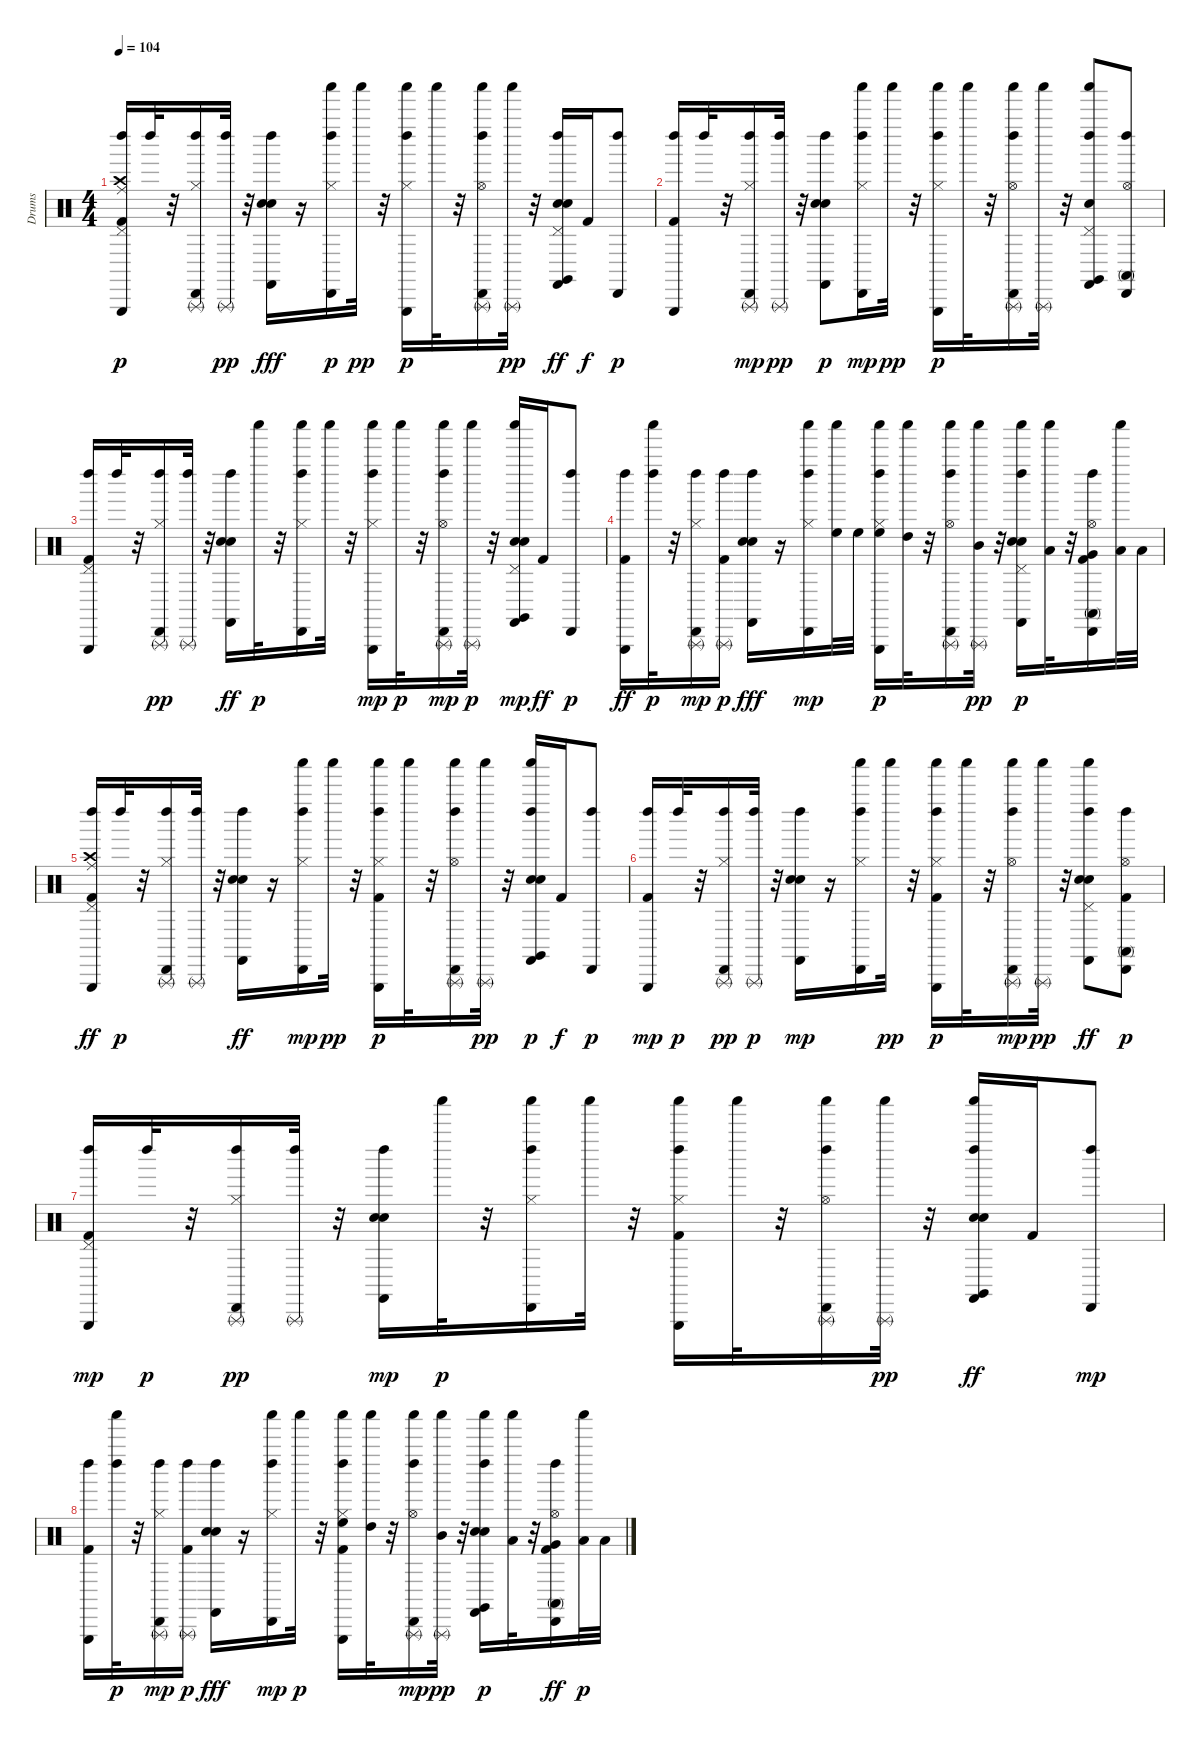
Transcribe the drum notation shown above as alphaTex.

\track ("Drums" "Drums") {instrument percussion}
\staff {score}
\articulation defaults
\ts (4 4)
\tempo 104
\clef neutral
\ks c
("Left Maraca (hit)" "Crash high (hit)" "Triangle (hit)" "Ride (middle)" "Kick (hit) 2" "Pedal Hi-Hat (hit)").16{dy p} "Left Maraca (hit)".32 r.32 ("Cabasa (hit)" "Left Maraca (hit)" "Triangle (rnute)" "Hi-Hat (closed)").16 ("Left Maraca (hit)" "Triangle (rnute)").32{dy pp} r.32 ("Left Maraca (hit)" "Electric Snare (hit)" "Castanets (hit)" "Hand Clap (hit)").16{dy fff} r.16 ("Cabasa (hit)" "Left Maraca (hit)" "Shaker (hit)" "Hi-Hat (closed)").16{dy p} "Shaker (hit)".32{dy pp} r.32 ("Hi-Hat (closed)" "Left Maraca (hit)" "Triangle (hit)" "Shaker (hit)").16{dy p} "Shaker (hit)".32 r.32 ("Hi-Hat (open)" "Left Maraca (hit)" "Cabasa (hit)" "Triangle (rnute)" "Shaker (hit)").16 ("Shaker (hit)" "Triangle (rnute)").32{dy pp} r.32 ("Pedal Hi-Hat (hit)" "Electric Snare (hit)" "Hand Clap (hit)" "Claves (hit)" "Left Maraca (hit)" "Castanets (hit)").16{dy ff} "Kick (hit) 2".16{dy f} ("Cabasa (hit)" "Left Maraca (hit)").8{dy p} |
("Triangle (hit)" "Kick (hit) 2" "Left Maraca (hit)").16 "Left Maraca (hit)".32 r.32 ("Hi-Hat (closed)" "Triangle (rnute)" "Left Maraca (hit)" "Cabasa (hit)").16{dy mp} ("Left Maraca (hit)" "Triangle (rnute)").32{dy pp} r.32 ("Electric Snare (hit)" "Hand Clap (hit)" "Castanets (hit)" "Left Maraca (hit)").8{dy p} ("Left Maraca (hit)" "Hi-Hat (closed)" "Shaker (hit)" "Cabasa (hit)").16{dy mp} "Shaker (hit)".32{dy pp} r.32 ("Shaker (hit)" "Hi-Hat (closed)" "Triangle (hit)" "Left Maraca (hit)").16{dy p} "Shaker (hit)".32 r.32 ("Cabasa (hit)" "Triangle (rnute)" "Left Maraca (hit)" "Shaker (hit)" "Hi-Hat (open)").16 ("Triangle (rnute)" "Shaker (hit)").32 r.32 ("Electric Snare (hit)" "Claves (hit)" "Pedal Hi-Hat (hit)" "Left Maraca (hit)" "Castanets (hit)" "Shaker (hit)").8 ("Left Maraca (hit)" "Cabasa (hit)" "Hi-Hat (open)" "Conga high (mute)").8 |
("Kick (hit) 2" "Left Maraca (hit)" "Triangle (hit)" "Pedal Hi-Hat (hit)").16 "Left Maraca (hit)".32 r.32 ("Hi-Hat (closed)" "Cabasa (hit)" "Left Maraca (hit)" "Triangle (rnute)").16{dy pp} ("Left Maraca (hit)" "Triangle (rnute)").32 r.32 ("Hand Clap (hit)" "Electric Snare (hit)" "Left Maraca (hit)" "Castanets (hit)").16{dy ff} "Shaker (hit)".32{dy p} r.32 ("Left Maraca (hit)" "Cabasa (hit)" "Shaker (hit)" "Hi-Hat (closed)").16 "Shaker (hit)".32 r.32 ("Hi-Hat (closed)" "Left Maraca (hit)" "Shaker (hit)" "Triangle (hit)").16{dy mp} "Shaker (hit)".32{dy p} r.32 ("Left Maraca (hit)" "Triangle (rnute)" "Hi-Hat (open)" "Shaker (hit)" "Cabasa (hit)").16{dy mp} ("Triangle (rnute)" "Shaker (hit)").32{dy p} r.32 ("Claves (hit)" "Shaker (hit)" "Castanets (hit)" "Electric Snare (hit)" "Hand Clap (hit)" "Pedal Hi-Hat (hit)").16{dy mp} "Kick (hit) 2".16{dy ff} ("Cabasa (hit)" "Left Maraca (hit)").8{dy p} |
("Left Maraca (hit)" "Triangle (hit)" "Kick (hit) 2").16{dy ff} ("Shaker (hit)" "Left Maraca (hit)").32{dy p} r.32 ("Left Maraca (hit)" "Triangle (rnute)" "Hi-Hat (closed)" "Cabasa (hit)").16{dy mp} ("Kick (hit) 2" "Triangle (rnute)" "Left Maraca (hit)").16{dy p} ("Electric Snare (hit)" "Left Maraca (hit)" "Castanets (hit)" "Hand Clap (hit)").16{dy fff} r.16 ("Hi-Hat (closed)" "Shaker (hit)" "Left Maraca (hit)" "Cabasa (hit)").16{dy mp} ("Shaker (hit)" "High Floor Tom (hit)").32 "High Floor Tom (hit)".32 ("Hi-Hat (closed)" "Shaker (hit)" "High Floor Tom (hit)" "Triangle (hit)" "Left Maraca (hit)").16{dy p} ("Shaker (hit)" "High Tom (hit)").32 r.32 ("Cabasa (hit)" "Shaker (hit)" "Hi-Hat (open)" "Triangle (rnute)" "Left Maraca (hit)").16 ("Mid Tom (hit)" "Shaker (hit)" "Triangle (rnute)").32{dy pp} r.32 ("Pedal Hi-Hat (hit)" "Hand Clap (hit)" "Shaker (hit)" "Castanets (hit)" "Electric Snare (hit)" "Left Maraca (hit)").16{dy p} ("Low Tom (hit)" "Shaker (hit)").32 r.32 ("Kick (hit) 2" "Very Low Tom (hit)" "Conga high (mute)" "Left Maraca (hit)" "Cabasa (hit)" "Hi-Hat (open)").16 ("Shaker (hit)" "Low Floor Tom (hit)").32 "Low Floor Tom (hit)".32 |
("Pedal Hi-Hat (hit)" "Crash high (hit)" "Left Maraca (hit)" "Kick (hit) 2" "Triangle (hit)" "Ride (middle)").16{dy ff} "Left Maraca (hit)".32{dy p} r.32 ("Cabasa (hit)" "Triangle (rnute)" "Left Maraca (hit)" "Hi-Hat (closed)").16 ("Triangle (rnute)" "Left Maraca (hit)").32 r.32 ("Hand Clap (hit)" "Electric Snare (hit)" "Left Maraca (hit)" "Castanets (hit)").16{dy ff} r.16 ("Shaker (hit)" "Hi-Hat (closed)" "Left Maraca (hit)" "Cabasa (hit)").16{dy mp} "Shaker (hit)".32{dy pp} r.32 ("Hi-Hat (closed)" "Triangle (hit)" "Kick (hit) 2" "Left Maraca (hit)" "Shaker (hit)").16{dy p} "Shaker (hit)".32 r.32 ("Triangle (rnute)" "Shaker (hit)" "Left Maraca (hit)" "Cabasa (hit)" "Hi-Hat (open)").16 ("Shaker (hit)" "Triangle (rnute)").32{dy pp} r.32 ("Hand Clap (hit)" "Electric Snare (hit)" "Claves (hit)" "Castanets (hit)" "Left Maraca (hit)" "Shaker (hit)").16{dy p} "Kick (hit) 2".16{dy f} ("Cabasa (hit)" "Left Maraca (hit)").8{dy p} |
("Left Maraca (hit)" "Triangle (hit)" "Kick (hit) 2").16{dy mp} "Left Maraca (hit)".32{dy p} r.32 ("Hi-Hat (closed)" "Cabasa (hit)" "Left Maraca (hit)" "Triangle (rnute)").16{dy pp} ("Triangle (rnute)" "Left Maraca (hit)").32{dy p} r.32 ("Castanets (hit)" "Hand Clap (hit)" "Left Maraca (hit)" "Electric Snare (hit)").16{dy mp} r.16 ("Hi-Hat (closed)" "Shaker (hit)" "Left Maraca (hit)" "Cabasa (hit)").16 "Shaker (hit)".32{dy pp} r.32 ("Shaker (hit)" "Left Maraca (hit)" "Triangle (hit)" "Hi-Hat (closed)" "Kick (hit) 2").16{dy p} "Shaker (hit)".32 r.32 ("Shaker (hit)" "Left Maraca (hit)" "Triangle (rnute)" "Hi-Hat (open)" "Cabasa (hit)").16{dy mp} ("Shaker (hit)" "Triangle (rnute)").32{dy pp} r.32 ("Pedal Hi-Hat (hit)" "Left Maraca (hit)" "Shaker (hit)" "Hand Clap (hit)" "Electric Snare (hit)" "Castanets (hit)").8{dy ff} ("Hi-Hat (open)" "Cabasa (hit)" "Kick (hit) 2" "Left Maraca (hit)" "Conga high (mute)").8{dy p} |
("Kick (hit) 2" "Left Maraca (hit)" "Pedal Hi-Hat (hit)" "Triangle (hit)").16{dy mp} "Left Maraca (hit)".32{dy p} r.32 ("Hi-Hat (closed)" "Triangle (rnute)" "Cabasa (hit)" "Left Maraca (hit)").16{dy pp} ("Triangle (rnute)" "Left Maraca (hit)").32 r.32 ("Castanets (hit)" "Left Maraca (hit)" "Hand Clap (hit)" "Electric Snare (hit)").16{dy mp} "Shaker (hit)".32{dy p} r.32 ("Hi-Hat (closed)" "Left Maraca (hit)" "Cabasa (hit)" "Shaker (hit)").16 "Shaker (hit)".32 r.32 ("Kick (hit) 2" "Shaker (hit)" "Left Maraca (hit)" "Triangle (hit)" "Hi-Hat (closed)").16 "Shaker (hit)".32 r.32 ("Cabasa (hit)" "Triangle (rnute)" "Left Maraca (hit)" "Shaker (hit)" "Hi-Hat (open)").16 ("Shaker (hit)" "Triangle (rnute)").32{dy pp} r.32 ("Hand Clap (hit)" "Left Maraca (hit)" "Castanets (hit)" "Electric Snare (hit)" "Shaker (hit)" "Claves (hit)").16{dy ff} "Kick (hit) 2".16 ("Left Maraca (hit)" "Cabasa (hit)").8{dy mp} |
("Left Maraca (hit)" "Kick (hit) 2" "Triangle (hit)").16 ("Left Maraca (hit)" "Shaker (hit)").32{dy p} r.32 ("Hi-Hat (closed)" "Left Maraca (hit)" "Triangle (rnute)" "Cabasa (hit)").16{dy mp} ("Kick (hit) 2" "Triangle (rnute)" "Left Maraca (hit)").16{dy p} ("Electric Snare (hit)" "Castanets (hit)" "Left Maraca (hit)" "Hand Clap (hit)").16{dy fff} r.16 ("Shaker (hit)" "Left Maraca (hit)" "Hi-Hat (closed)" "Cabasa (hit)").16{dy mp} "Shaker (hit)".32{dy p} r.32 ("High Floor Tom (hit)" "Hi-Hat (closed)" "Triangle (hit)" "Left Maraca (hit)" "Shaker (hit)" "Kick (hit) 2").16 ("Shaker (hit)" "High Tom (hit)").32 r.32 ("Hi-Hat (open)" "Triangle (rnute)" "Shaker (hit)" "Left Maraca (hit)" "Cabasa (hit)").16{dy mp} ("Shaker (hit)" "Mid Tom (hit)" "Triangle (rnute)").32{dy pp} r.32 ("Castanets (hit)" "Electric Snare (hit)" "Claves (hit)" "Shaker (hit)" "Hand Clap (hit)" "Left Maraca (hit)").16{dy p} ("Low Tom (hit)" "Shaker (hit)").32 r.32 ("Hi-Hat (open)" "Conga high (mute)" "Left Maraca (hit)" "Cabasa (hit)" "Very Low Tom (hit)" "Kick (hit) 2").16{dy ff} ("Low Floor Tom (hit)" "Shaker (hit)").32{dy p} "Low Floor Tom (hit)".32
